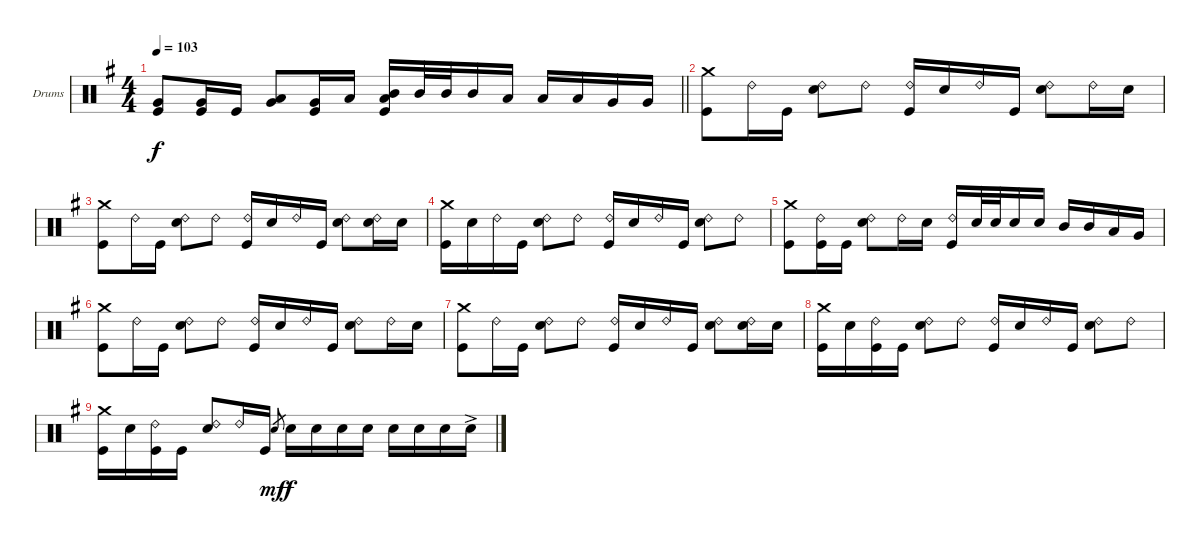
\bracketExtendMode groupsimilarinstruments
\firstSystemTrackNameOrientation horizontal
\otherSystemsTrackNameOrientation horizontal
\track ("Drumkit" "Drums") {instrument percussion}
\staff {score}
\articulation defaults
\ts (4 4)
\tempo 103
\clef neutral
\barLineRight lightlight
\ks eminor
("Very Low Tom (hit)" "Kick (hit)").8{dy f} ("Very Low Tom (hit)" "Kick (hit)").16 "Kick (hit)".16 ("Low Tom (hit)" "Very Low Tom (hit)").8 ("Very Low Tom (hit)" "Kick (hit)").16 "Low Tom (hit)".16 ("Mid Tom (hit)" "Low Tom (hit)" "Kick (hit)").16 "Mid Tom (hit)".32 "Mid Tom (hit)".32 "Mid Tom (hit)".16 "Low Tom (hit)".16 "Low Tom (hit)".16 "Low Tom (hit)".16 "Very Low Tom (hit)".16 "Very Low Tom (hit)".16 |
("Crash medium (hit)" "Kick (hit)").8 "Ride (bell) 2".16 "Kick (hit)".16 ("Ride (bell) 2" "Snare (hit) 2").8 "Ride (bell) 2".8 ("Ride (bell) 2" "Kick (hit)").16 "Snare (hit) 2".16 "Ride (bell) 2".16 "Kick (hit)".16 ("Ride (bell) 2" "Snare (hit) 2").8 "Ride (bell) 2".16 "Snare (hit) 2".16 |
("Crash medium (hit)" "Kick (hit)").8 "Ride (bell) 2".16 "Kick (hit)".16 ("Ride (bell) 2" "Snare (hit) 2").8 "Ride (bell) 2".8 ("Ride (bell) 2" "Kick (hit)").16 "Snare (hit) 2".16 "Ride (bell) 2".16 "Kick (hit)".16 ("Ride (bell) 2" "Snare (hit) 2").8 ("Ride (bell) 2" "Snare (hit) 2").16 "Snare (hit) 2".16 |
("Crash medium (hit)" "Kick (hit)").16 "Snare (hit) 2".16 "Ride (bell) 2".16 "Kick (hit)".16 ("Ride (bell) 2" "Snare (hit) 2").8 "Ride (bell) 2".8 ("Ride (bell) 2" "Kick (hit)").16 "Snare (hit) 2".16 "Ride (bell) 2".16 "Kick (hit)".16 ("Ride (bell) 2" "Snare (hit) 2").8 "Ride (bell) 2".8 |
("Crash medium (hit)" "Kick (hit)").8 ("Ride (bell) 2" "Kick (hit)").16 "Kick (hit)".16 ("Ride (bell) 2" "Snare (hit) 2").8 "Ride (bell) 2".16 "Snare (hit) 2".16 ("Ride (bell) 2" "Kick (hit)").16 "Snare (hit) 2".32 "Snare (hit) 2".32 "Snare (hit) 2".16 "Snare (hit) 2".16 "Mid Tom (hit)".16 "Mid Tom (hit)".16 "Low Tom (hit)".16 "Very Low Tom (hit)".16 |
("Crash medium (hit)" "Kick (hit)").8 "Ride (bell) 2".16 "Kick (hit)".16 ("Ride (bell) 2" "Snare (hit) 2").8 "Ride (bell) 2".8 ("Ride (bell) 2" "Kick (hit)").16 "Snare (hit) 2".16 "Ride (bell) 2".16 "Kick (hit)".16 ("Ride (bell) 2" "Snare (hit) 2").8 "Ride (bell) 2".16 "Snare (hit) 2".16 |
("Crash medium (hit)" "Kick (hit)").8 "Ride (bell) 2".16 "Kick (hit)".16 ("Ride (bell) 2" "Snare (hit) 2").8 "Ride (bell) 2".8 ("Ride (bell) 2" "Kick (hit)").16 "Snare (hit) 2".16 "Ride (bell) 2".16 "Kick (hit)".16 ("Ride (bell) 2" "Snare (hit) 2").8 ("Ride (bell) 2" "Snare (hit) 2").16 "Snare (hit) 2".16 |
("Crash medium (hit)" "Kick (hit)").16 "Snare (hit) 2".16 ("Ride (bell) 2" "Kick (hit)").16 "Kick (hit)".16 ("Ride (bell) 2" "Snare (hit) 2").8 "Ride (bell) 2".8 ("Ride (bell) 2" "Kick (hit)").16 "Snare (hit) 2".16 "Ride (bell) 2".16 "Kick (hit)".16 ("Ride (bell) 2" "Snare (hit) 2").8 "Ride (bell) 2".8 |
("Crash medium (hit)" "Kick (hit)").16 "Snare (hit) 2".16 ("Ride (bell) 2" "Kick (hit)").16 "Kick (hit)".16 ("Ride (bell) 2" "Snare (hit) 2").8 "Ride (bell) 2".16 "Kick (hit)".16 "Snare (hit) 2".8{gr dy mf} "Snare (hit) 2".16{dy f} "Snare (hit) 2".16 "Snare (hit) 2".16 "Snare (hit) 2".16 "Snare (hit) 2".16 "Snare (hit) 2".16 "Snare (hit) 2".16 "Snare (hit) 2"{ac}.16
